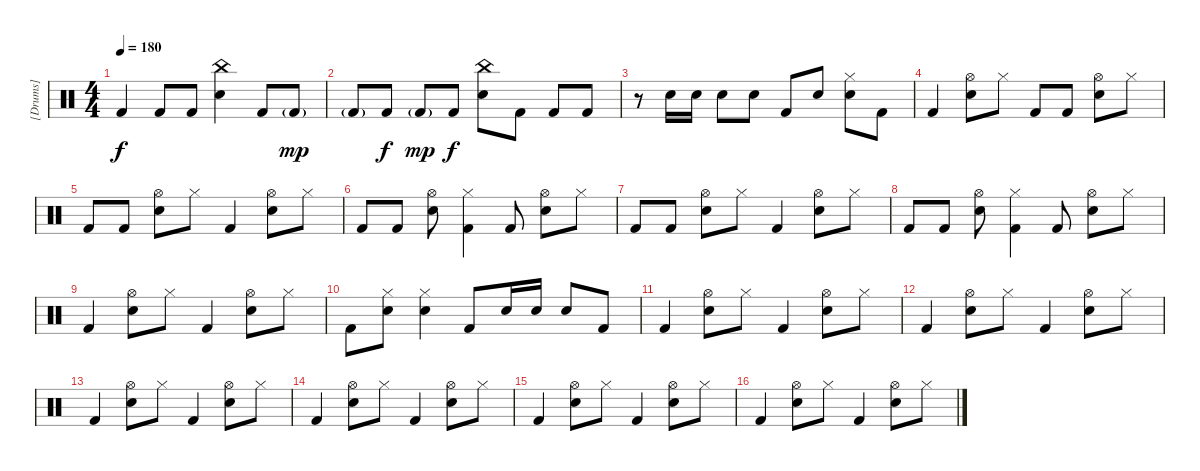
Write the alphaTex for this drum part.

\track ("[Drums]" "[Drums]") {instrument percussion}
\staff {score}
\articulation defaults
\ts (4 4)
\tempo 180
\clef neutral
\ks c "Kick (hit) 2".4{dy f} "Kick (hit) 2".8 "Kick (hit) 2".8
("China (hit)" "Electric Snare (hit)").4 "Kick (hit) 2".8 "Kick (hit) 2"{g}.8{dy mp} |
"Kick (hit) 2"{g}.8 "Kick (hit) 2".8{dy f} "Kick (hit) 2"{g}.8{dy mp} "Kick (hit) 2".8{dy f} ("China (hit)" "Electric Snare (hit)").8 "Kick (hit) 2".8 "Kick (hit) 2".8 "Kick (hit) 2".8 |
r.8 "Electric Snare (hit)".16 "Electric Snare (hit)".16 "Electric Snare (hit)".8 "Electric Snare (hit)".8 "Kick (hit) 2".8 "Electric Snare (hit)".8 ("Hi-Hat (closed)" "Electric Snare (hit)").8 "Kick (hit) 2".8 |
"Kick (hit) 2".4 ("Hi-Hat (open)" "Electric Snare (hit)").8 "Hi-Hat (closed)".8 "Kick (hit) 2".8 "Kick (hit) 2".8 ("Hi-Hat (open)" "Electric Snare (hit)").8 "Hi-Hat (closed)".8 |
"Kick (hit) 2".8 "Kick (hit) 2".8 ("Hi-Hat (open)" "Electric Snare (hit)").8 "Hi-Hat (closed)".8 "Kick (hit) 2".4 ("Hi-Hat (open)" "Electric Snare (hit)").8 "Hi-Hat (closed)".8 |
"Kick (hit) 2".8 "Kick (hit) 2".8 ("Hi-Hat (open)" "Electric Snare (hit)").8 ("Hi-Hat (closed)" "Kick (hit) 2").4 "Kick (hit) 2".8 ("Hi-Hat (open)" "Electric Snare (hit)").8 "Hi-Hat (closed)".8 |
"Kick (hit) 2".8 "Kick (hit) 2".8 ("Hi-Hat (open)" "Electric Snare (hit)").8 "Hi-Hat (closed)".8 "Kick (hit) 2".4 ("Hi-Hat (open)" "Electric Snare (hit)").8 "Hi-Hat (closed)".8 |
"Kick (hit) 2".8 "Kick (hit) 2".8 ("Hi-Hat (open)" "Electric Snare (hit)").8 ("Hi-Hat (closed)" "Kick (hit) 2").4 "Kick (hit) 2".8 ("Hi-Hat (open)" "Electric Snare (hit)").8 "Hi-Hat (closed)".8 |
"Kick (hit) 2".4 ("Hi-Hat (open)" "Electric Snare (hit)").8 "Hi-Hat (closed)".8 "Kick (hit) 2".4 ("Hi-Hat (open)" "Electric Snare (hit)").8 "Hi-Hat (closed)".8 |
"Kick (hit) 2".8 ("Hi-Hat (closed)" "Electric Snare (hit)").8 ("Hi-Hat (closed)" "Electric Snare (hit)").4 "Kick (hit) 2".8 "Electric Snare (hit)".16 "Electric Snare (hit)".16 "Electric Snare (hit)".8 "Kick (hit) 2".8 |
"Kick (hit) 2".4 ("Hi-Hat (open)" "Electric Snare (hit)").8 "Hi-Hat (closed)".8 "Kick (hit) 2".4 ("Hi-Hat (open)" "Electric Snare (hit)").8 "Hi-Hat (closed)".8 |
"Kick (hit) 2".4 ("Hi-Hat (open)" "Electric Snare (hit)").8 "Hi-Hat (closed)".8 "Kick (hit) 2".4 ("Hi-Hat (open)" "Electric Snare (hit)").8 "Hi-Hat (closed)".8 |
"Kick (hit) 2".4 ("Hi-Hat (open)" "Electric Snare (hit)").8 "Hi-Hat (closed)".8 "Kick (hit) 2".4 ("Hi-Hat (open)" "Electric Snare (hit)").8 "Hi-Hat (closed)".8 |
"Kick (hit) 2".4 ("Hi-Hat (open)" "Electric Snare (hit)").8 "Hi-Hat (closed)".8 "Kick (hit) 2".4 ("Hi-Hat (open)" "Electric Snare (hit)").8 "Hi-Hat (closed)".8 |
"Kick (hit) 2".4 ("Hi-Hat (open)" "Electric Snare (hit)").8 "Hi-Hat (closed)".8 "Kick (hit) 2".4 ("Hi-Hat (open)" "Electric Snare (hit)").8 "Hi-Hat (closed)".8 |
"Kick (hit) 2".4 ("Hi-Hat (open)" "Electric Snare (hit)").8 "Hi-Hat (closed)".8 "Kick (hit) 2".4 ("Hi-Hat (open)" "Electric Snare (hit)").8 "Hi-Hat (closed)".8
